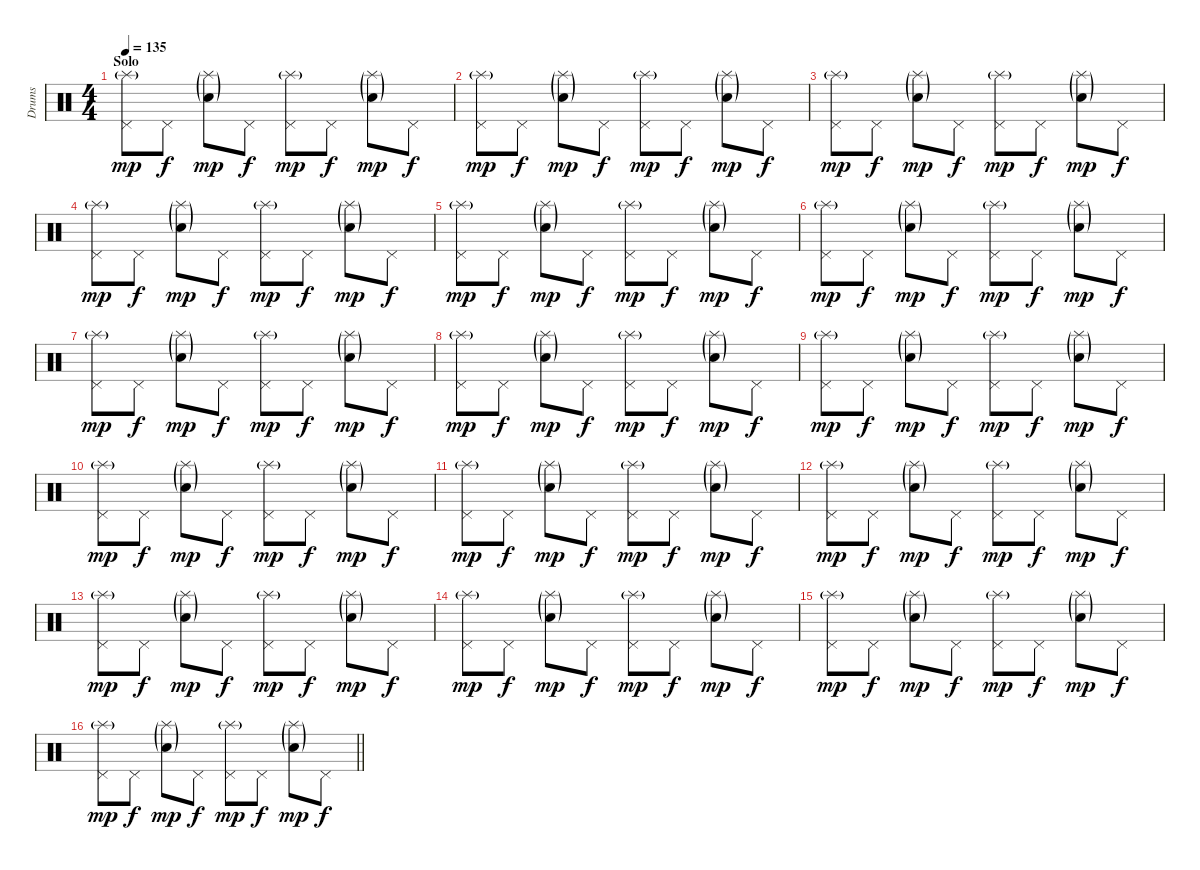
\track ("Drums" "Drums") {instrument percussion}
\staff {score}
\articulation defaults
\ts (4 4)
\section ("" "Solo")
\tempo 135
\clef neutral
\ks c
("Pedal Hi-Hat (hit)" "Splash (hit)"{g}).8{dy mp} "Pedal Hi-Hat (hit)".8{dy f} ("Hand Clap (hit)"{g} "Splash (hit)"{g}).8{dy mp} "Pedal Hi-Hat (hit)".8{dy f} ("Pedal Hi-Hat (hit)" "Splash (hit)"{g}).8{dy mp} "Pedal Hi-Hat (hit)".8{dy f} ("Hand Clap (hit)"{g} "Splash (hit)"{g}).8{dy mp} "Pedal Hi-Hat (hit)".8{dy f} |
("Pedal Hi-Hat (hit)" "Splash (hit)"{g}).8{dy mp} "Pedal Hi-Hat (hit)".8{dy f} ("Hand Clap (hit)"{g} "Splash (hit)"{g}).8{dy mp} "Pedal Hi-Hat (hit)".8{dy f} ("Pedal Hi-Hat (hit)" "Splash (hit)"{g}).8{dy mp} "Pedal Hi-Hat (hit)".8{dy f} ("Hand Clap (hit)"{g} "Splash (hit)"{g}).8{dy mp} "Pedal Hi-Hat (hit)".8{dy f} |
("Pedal Hi-Hat (hit)" "Splash (hit)"{g}).8{dy mp} "Pedal Hi-Hat (hit)".8{dy f} ("Hand Clap (hit)"{g} "Splash (hit)"{g}).8{dy mp} "Pedal Hi-Hat (hit)".8{dy f} ("Pedal Hi-Hat (hit)" "Splash (hit)"{g}).8{dy mp} "Pedal Hi-Hat (hit)".8{dy f} ("Hand Clap (hit)"{g} "Splash (hit)"{g}).8{dy mp} "Pedal Hi-Hat (hit)".8{dy f} |
("Pedal Hi-Hat (hit)" "Splash (hit)"{g}).8{dy mp} "Pedal Hi-Hat (hit)".8{dy f} ("Hand Clap (hit)"{g} "Splash (hit)"{g}).8{dy mp} "Pedal Hi-Hat (hit)".8{dy f} ("Pedal Hi-Hat (hit)" "Splash (hit)"{g}).8{dy mp} "Pedal Hi-Hat (hit)".8{dy f} ("Hand Clap (hit)"{g} "Splash (hit)"{g}).8{dy mp} "Pedal Hi-Hat (hit)".8{dy f} |
("Pedal Hi-Hat (hit)" "Splash (hit)"{g}).8{dy mp} "Pedal Hi-Hat (hit)".8{dy f} ("Hand Clap (hit)"{g} "Splash (hit)"{g}).8{dy mp} "Pedal Hi-Hat (hit)".8{dy f} ("Pedal Hi-Hat (hit)" "Splash (hit)"{g}).8{dy mp} "Pedal Hi-Hat (hit)".8{dy f} ("Hand Clap (hit)"{g} "Splash (hit)"{g}).8{dy mp} "Pedal Hi-Hat (hit)".8{dy f} |
("Pedal Hi-Hat (hit)" "Splash (hit)"{g}).8{dy mp} "Pedal Hi-Hat (hit)".8{dy f} ("Hand Clap (hit)"{g} "Splash (hit)"{g}).8{dy mp} "Pedal Hi-Hat (hit)".8{dy f} ("Pedal Hi-Hat (hit)" "Splash (hit)"{g}).8{dy mp} "Pedal Hi-Hat (hit)".8{dy f} ("Hand Clap (hit)"{g} "Splash (hit)"{g}).8{dy mp} "Pedal Hi-Hat (hit)".8{dy f} |
("Pedal Hi-Hat (hit)" "Splash (hit)"{g}).8{dy mp} "Pedal Hi-Hat (hit)".8{dy f} ("Hand Clap (hit)"{g} "Splash (hit)"{g}).8{dy mp} "Pedal Hi-Hat (hit)".8{dy f} ("Pedal Hi-Hat (hit)" "Splash (hit)"{g}).8{dy mp} "Pedal Hi-Hat (hit)".8{dy f} ("Hand Clap (hit)"{g} "Splash (hit)"{g}).8{dy mp} "Pedal Hi-Hat (hit)".8{dy f} |
("Pedal Hi-Hat (hit)" "Splash (hit)"{g}).8{dy mp} "Pedal Hi-Hat (hit)".8{dy f} ("Hand Clap (hit)"{g} "Splash (hit)"{g}).8{dy mp} "Pedal Hi-Hat (hit)".8{dy f} ("Pedal Hi-Hat (hit)" "Splash (hit)"{g}).8{dy mp} "Pedal Hi-Hat (hit)".8{dy f} ("Hand Clap (hit)"{g} "Splash (hit)"{g}).8{dy mp} "Pedal Hi-Hat (hit)".8{dy f} |
("Pedal Hi-Hat (hit)" "Splash (hit)"{g}).8{dy mp} "Pedal Hi-Hat (hit)".8{dy f} ("Hand Clap (hit)"{g} "Splash (hit)"{g}).8{dy mp} "Pedal Hi-Hat (hit)".8{dy f} ("Pedal Hi-Hat (hit)" "Splash (hit)"{g}).8{dy mp} "Pedal Hi-Hat (hit)".8{dy f} ("Hand Clap (hit)"{g} "Splash (hit)"{g}).8{dy mp} "Pedal Hi-Hat (hit)".8{dy f} |
("Pedal Hi-Hat (hit)" "Splash (hit)"{g}).8{dy mp} "Pedal Hi-Hat (hit)".8{dy f} ("Hand Clap (hit)"{g} "Splash (hit)"{g}).8{dy mp} "Pedal Hi-Hat (hit)".8{dy f} ("Pedal Hi-Hat (hit)" "Splash (hit)"{g}).8{dy mp} "Pedal Hi-Hat (hit)".8{dy f} ("Hand Clap (hit)"{g} "Splash (hit)"{g}).8{dy mp} "Pedal Hi-Hat (hit)".8{dy f} |
("Pedal Hi-Hat (hit)" "Splash (hit)"{g}).8{dy mp} "Pedal Hi-Hat (hit)".8{dy f} ("Hand Clap (hit)"{g} "Splash (hit)"{g}).8{dy mp} "Pedal Hi-Hat (hit)".8{dy f} ("Pedal Hi-Hat (hit)" "Splash (hit)"{g}).8{dy mp} "Pedal Hi-Hat (hit)".8{dy f} ("Hand Clap (hit)"{g} "Splash (hit)"{g}).8{dy mp} "Pedal Hi-Hat (hit)".8{dy f} |
("Pedal Hi-Hat (hit)" "Splash (hit)"{g}).8{dy mp} "Pedal Hi-Hat (hit)".8{dy f} ("Hand Clap (hit)"{g} "Splash (hit)"{g}).8{dy mp} "Pedal Hi-Hat (hit)".8{dy f} ("Pedal Hi-Hat (hit)" "Splash (hit)"{g}).8{dy mp} "Pedal Hi-Hat (hit)".8{dy f} ("Hand Clap (hit)"{g} "Splash (hit)"{g}).8{dy mp} "Pedal Hi-Hat (hit)".8{dy f} |
("Pedal Hi-Hat (hit)" "Splash (hit)"{g}).8{dy mp} "Pedal Hi-Hat (hit)".8{dy f} ("Hand Clap (hit)"{g} "Splash (hit)"{g}).8{dy mp} "Pedal Hi-Hat (hit)".8{dy f} ("Pedal Hi-Hat (hit)" "Splash (hit)"{g}).8{dy mp} "Pedal Hi-Hat (hit)".8{dy f} ("Hand Clap (hit)"{g} "Splash (hit)"{g}).8{dy mp} "Pedal Hi-Hat (hit)".8{dy f} |
("Pedal Hi-Hat (hit)" "Splash (hit)"{g}).8{dy mp} "Pedal Hi-Hat (hit)".8{dy f} ("Hand Clap (hit)"{g} "Splash (hit)"{g}).8{dy mp} "Pedal Hi-Hat (hit)".8{dy f} ("Pedal Hi-Hat (hit)" "Splash (hit)"{g}).8{dy mp} "Pedal Hi-Hat (hit)".8{dy f} ("Hand Clap (hit)"{g} "Splash (hit)"{g}).8{dy mp} "Pedal Hi-Hat (hit)".8{dy f} |
("Pedal Hi-Hat (hit)" "Splash (hit)"{g}).8{dy mp} "Pedal Hi-Hat (hit)".8{dy f} ("Hand Clap (hit)"{g} "Splash (hit)"{g}).8{dy mp} "Pedal Hi-Hat (hit)".8{dy f} ("Pedal Hi-Hat (hit)" "Splash (hit)"{g}).8{dy mp} "Pedal Hi-Hat (hit)".8{dy f} ("Hand Clap (hit)"{g} "Splash (hit)"{g}).8{dy mp} "Pedal Hi-Hat (hit)".8{dy f} |
\barLineRight lightlight
("Pedal Hi-Hat (hit)" "Splash (hit)"{g}).8{dy mp} "Pedal Hi-Hat (hit)".8{dy f} ("Hand Clap (hit)"{g} "Splash (hit)"{g}).8{dy mp} "Pedal Hi-Hat (hit)".8{dy f} ("Pedal Hi-Hat (hit)" "Splash (hit)"{g}).8{dy mp} "Pedal Hi-Hat (hit)".8{dy f} ("Hand Clap (hit)"{g} "Splash (hit)"{g}).8{dy mp} "Pedal Hi-Hat (hit)".8{dy f}
